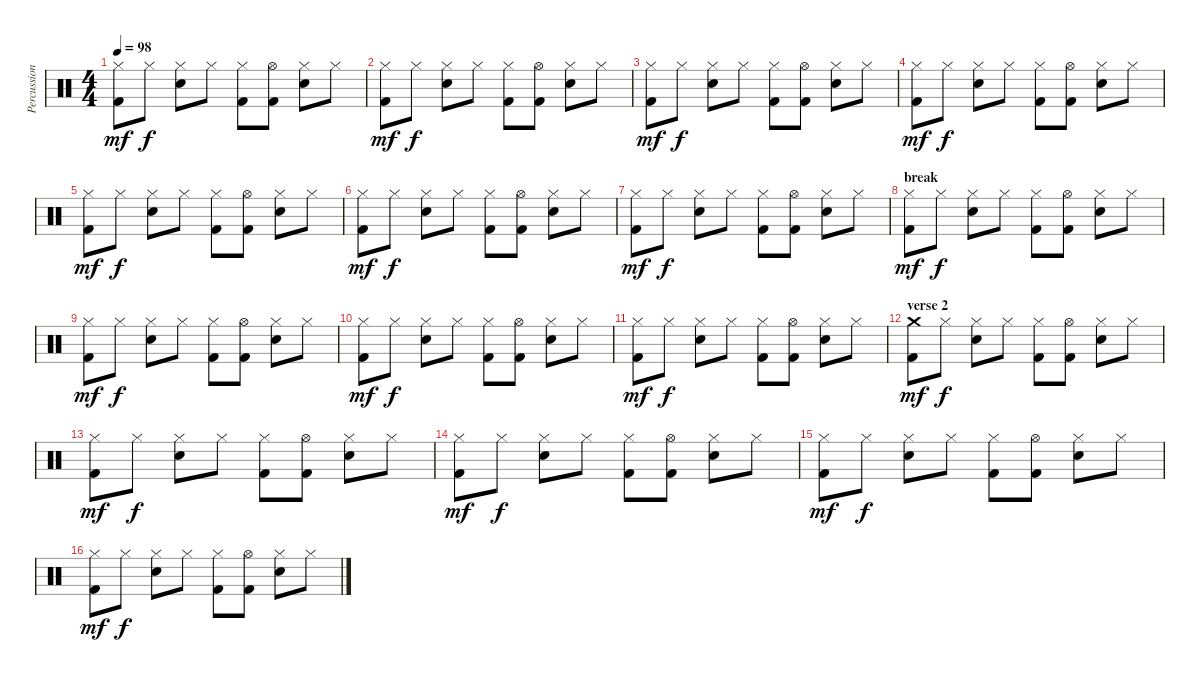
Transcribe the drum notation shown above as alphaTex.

\track ("Percussion" "Percussion") {instrument percussion}
\staff {score}
\articulation defaults
\ts (4 4)
\tempo 98
\clef neutral
\ks c
("Hi-Hat (closed)" "Kick (hit) 2").8{dy mf} "Hi-Hat (closed)".8{dy f} ("Hi-Hat (closed)" "Snare (hit) 2").8 "Hi-Hat (closed)".8 ("Hi-Hat (closed)" "Kick (hit) 2").8 ("Hi-Hat (open)" "Kick (hit) 2").8 ("Hi-Hat (closed)" "Snare (hit) 2").8 "Hi-Hat (closed)".8 |
("Hi-Hat (closed)" "Kick (hit) 2").8{dy mf} "Hi-Hat (closed)".8{dy f} ("Hi-Hat (closed)" "Snare (hit) 2").8 "Hi-Hat (closed)".8 ("Hi-Hat (closed)" "Kick (hit) 2").8 ("Hi-Hat (open)" "Kick (hit) 2").8 ("Hi-Hat (closed)" "Snare (hit) 2").8 "Hi-Hat (closed)".8 |
("Hi-Hat (closed)" "Kick (hit) 2").8{dy mf} "Hi-Hat (closed)".8{dy f} ("Hi-Hat (closed)" "Snare (hit) 2").8 "Hi-Hat (closed)".8 ("Hi-Hat (closed)" "Kick (hit) 2").8 ("Hi-Hat (open)" "Kick (hit) 2").8 ("Hi-Hat (closed)" "Snare (hit) 2").8 "Hi-Hat (closed)".8 |
("Hi-Hat (closed)" "Kick (hit) 2").8{dy mf} "Hi-Hat (closed)".8{dy f} ("Hi-Hat (closed)" "Snare (hit) 2").8 "Hi-Hat (closed)".8 ("Hi-Hat (closed)" "Kick (hit) 2").8 ("Hi-Hat (open)" "Kick (hit) 2").8 ("Hi-Hat (closed)" "Snare (hit) 2").8 "Hi-Hat (closed)".8 |
("Hi-Hat (closed)" "Kick (hit) 2").8{dy mf} "Hi-Hat (closed)".8{dy f} ("Hi-Hat (closed)" "Snare (hit) 2").8 "Hi-Hat (closed)".8 ("Hi-Hat (closed)" "Kick (hit) 2").8 ("Hi-Hat (open)" "Kick (hit) 2").8 ("Hi-Hat (closed)" "Snare (hit) 2").8 "Hi-Hat (closed)".8 |
("Hi-Hat (closed)" "Kick (hit) 2").8{dy mf} "Hi-Hat (closed)".8{dy f} ("Hi-Hat (closed)" "Snare (hit) 2").8 "Hi-Hat (closed)".8 ("Hi-Hat (closed)" "Kick (hit) 2").8 ("Hi-Hat (open)" "Kick (hit) 2").8 ("Hi-Hat (closed)" "Snare (hit) 2").8 "Hi-Hat (closed)".8 |
("Hi-Hat (closed)" "Kick (hit) 2").8{dy mf} "Hi-Hat (closed)".8{dy f} ("Hi-Hat (closed)" "Snare (hit) 2").8 "Hi-Hat (closed)".8 ("Hi-Hat (closed)" "Kick (hit) 2").8 ("Hi-Hat (open)" "Kick (hit) 2").8 ("Hi-Hat (closed)" "Snare (hit) 2").8 "Hi-Hat (closed)".8 |
\section ("" "break")
("Hi-Hat (closed)" "Kick (hit) 2").8{dy mf} "Hi-Hat (closed)".8{dy f} ("Hi-Hat (closed)" "Snare (hit) 2").8 "Hi-Hat (closed)".8 ("Hi-Hat (closed)" "Kick (hit) 2").8 ("Hi-Hat (open)" "Kick (hit) 2").8 ("Hi-Hat (closed)" "Snare (hit) 2").8 "Hi-Hat (closed)".8 |
("Hi-Hat (closed)" "Kick (hit) 2").8{dy mf} "Hi-Hat (closed)".8{dy f} ("Hi-Hat (closed)" "Snare (hit) 2").8 "Hi-Hat (closed)".8 ("Hi-Hat (closed)" "Kick (hit) 2").8 ("Hi-Hat (open)" "Kick (hit) 2").8 ("Hi-Hat (closed)" "Snare (hit) 2").8 "Hi-Hat (closed)".8 |
("Hi-Hat (closed)" "Kick (hit) 2").8{dy mf} "Hi-Hat (closed)".8{dy f} ("Hi-Hat (closed)" "Snare (hit) 2").8 "Hi-Hat (closed)".8 ("Hi-Hat (closed)" "Kick (hit) 2").8 ("Hi-Hat (open)" "Kick (hit) 2").8 ("Hi-Hat (closed)" "Snare (hit) 2").8 "Hi-Hat (closed)".8 |
("Hi-Hat (closed)" "Kick (hit) 2").8{dy mf} "Hi-Hat (closed)".8{dy f} ("Hi-Hat (closed)" "Snare (hit) 2").8 "Hi-Hat (closed)".8 ("Hi-Hat (closed)" "Kick (hit) 2").8 ("Hi-Hat (open)" "Kick (hit) 2").8 ("Hi-Hat (closed)" "Snare (hit) 2").8 "Hi-Hat (closed)".8 |
\section ("" "verse 2")
("Crash medium (hit)" "Kick (hit) 2").8{dy mf} "Hi-Hat (closed)".8{dy f} ("Hi-Hat (closed)" "Snare (hit) 2").8 "Hi-Hat (closed)".8 ("Hi-Hat (closed)" "Kick (hit) 2").8 ("Hi-Hat (open)" "Kick (hit) 2").8 ("Hi-Hat (closed)" "Snare (hit) 2").8 "Hi-Hat (closed)".8 |
("Hi-Hat (closed)" "Kick (hit) 2").8{dy mf} "Hi-Hat (closed)".8{dy f} ("Hi-Hat (closed)" "Snare (hit) 2").8 "Hi-Hat (closed)".8 ("Hi-Hat (closed)" "Kick (hit) 2").8 ("Hi-Hat (open)" "Kick (hit) 2").8 ("Hi-Hat (closed)" "Snare (hit) 2").8 "Hi-Hat (closed)".8 |
("Hi-Hat (closed)" "Kick (hit) 2").8{dy mf} "Hi-Hat (closed)".8{dy f} ("Hi-Hat (closed)" "Snare (hit) 2").8 "Hi-Hat (closed)".8 ("Hi-Hat (closed)" "Kick (hit) 2").8 ("Hi-Hat (open)" "Kick (hit) 2").8 ("Hi-Hat (closed)" "Snare (hit) 2").8 "Hi-Hat (closed)".8 |
("Hi-Hat (closed)" "Kick (hit) 2").8{dy mf} "Hi-Hat (closed)".8{dy f} ("Hi-Hat (closed)" "Snare (hit) 2").8 "Hi-Hat (closed)".8 ("Hi-Hat (closed)" "Kick (hit) 2").8 ("Hi-Hat (open)" "Kick (hit) 2").8 ("Hi-Hat (closed)" "Snare (hit) 2").8 "Hi-Hat (closed)".8 |
("Hi-Hat (closed)" "Kick (hit) 2").8{dy mf} "Hi-Hat (closed)".8{dy f} ("Hi-Hat (closed)" "Snare (hit) 2").8 "Hi-Hat (closed)".8 ("Hi-Hat (closed)" "Kick (hit) 2").8 ("Hi-Hat (open)" "Kick (hit) 2").8 ("Hi-Hat (closed)" "Snare (hit) 2").8 "Hi-Hat (closed)".8
